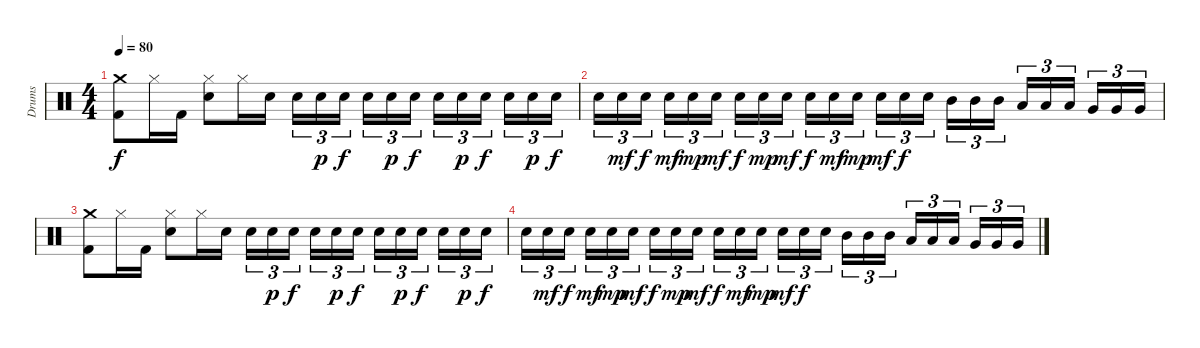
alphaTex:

\track ("Drums" "Drums") {instrument percussion}
\staff {score}
\articulation defaults
\ts (4 4)
\tempo 80
\clef neutral
\ks c
("Crash medium (hit)" "Kick (hit) 2").8{dy f} "Hi-Hat (closed)".16 "Kick (hit) 2".16 ("Hi-Hat (closed)" "Electric Snare (hit)").8 "Hi-Hat (closed)".16 "Electric Snare (hit)".16 "Electric Snare (hit)".16{tu (3 2)} "Electric Snare (hit)".16{tu (3 2) dy p} "Electric Snare (hit)".16{tu (3 2) dy f} "Electric Snare (hit)".16{tu (3 2)} "Electric Snare (hit)".16{tu (3 2) dy p} "Electric Snare (hit)".16{tu (3 2) dy f} "Electric Snare (hit)".16{tu (3 2)} "Electric Snare (hit)".16{tu (3 2) dy p} "Electric Snare (hit)".16{tu (3 2) dy f} "Electric Snare (hit)".16{tu (3 2)} "Electric Snare (hit)".16{tu (3 2) dy p} "Electric Snare (hit)".16{tu (3 2) dy f} |
"Electric Snare (hit)".16{tu (3 2)} "Electric Snare (hit)".16{tu (3 2) dy mf} "Electric Snare (hit)".16{tu (3 2) dy f} "Electric Snare (hit)".16{tu (3 2) dy mf} "Electric Snare (hit)".16{tu (3 2) dy mp} "Electric Snare (hit)".16{tu (3 2) dy mf} "Electric Snare (hit)".16{tu (3 2) dy f} "Electric Snare (hit)".16{tu (3 2) dy mp} "Electric Snare (hit)".16{tu (3 2) dy mf} "Electric Snare (hit)".16{tu (3 2) dy f} "Electric Snare (hit)".16{tu (3 2) dy mf} "Electric Snare (hit)".16{tu (3 2) dy mp} "Electric Snare (hit)".16{tu (3 2) dy mf} "Electric Snare (hit)".16{tu (3 2) dy f} "Electric Snare (hit)".16{tu (3 2)} "Mid Tom (hit)".16{tu (3 2)} "Mid Tom (hit)".16{tu (3 2)} "Mid Tom (hit)".16{tu (3 2)} "Low Tom (hit)".16{tu (3 2)} "Low Tom (hit)".16{tu (3 2)} "Low Tom (hit)".16{tu (3 2)} "Very Low Tom (hit)".16{tu (3 2)} "Very Low Tom (hit)".16{tu (3 2)} "Very Low Tom (hit)".16{tu (3 2)} |
("Crash medium (hit)" "Kick (hit) 2").8 "Hi-Hat (closed)".16 "Kick (hit) 2".16 ("Hi-Hat (closed)" "Electric Snare (hit)").8 "Hi-Hat (closed)".16 "Electric Snare (hit)".16 "Electric Snare (hit)".16{tu (3 2)} "Electric Snare (hit)".16{tu (3 2) dy p} "Electric Snare (hit)".16{tu (3 2) dy f} "Electric Snare (hit)".16{tu (3 2)} "Electric Snare (hit)".16{tu (3 2) dy p} "Electric Snare (hit)".16{tu (3 2) dy f} "Electric Snare (hit)".16{tu (3 2)} "Electric Snare (hit)".16{tu (3 2) dy p} "Electric Snare (hit)".16{tu (3 2) dy f} "Electric Snare (hit)".16{tu (3 2)} "Electric Snare (hit)".16{tu (3 2) dy p} "Electric Snare (hit)".16{tu (3 2) dy f} |
"Electric Snare (hit)".16{tu (3 2)} "Electric Snare (hit)".16{tu (3 2) dy mf} "Electric Snare (hit)".16{tu (3 2) dy f} "Electric Snare (hit)".16{tu (3 2) dy mf} "Electric Snare (hit)".16{tu (3 2) dy mp} "Electric Snare (hit)".16{tu (3 2) dy mf} "Electric Snare (hit)".16{tu (3 2) dy f} "Electric Snare (hit)".16{tu (3 2) dy mp} "Electric Snare (hit)".16{tu (3 2) dy mf} "Electric Snare (hit)".16{tu (3 2) dy f} "Electric Snare (hit)".16{tu (3 2) dy mf} "Electric Snare (hit)".16{tu (3 2) dy mp} "Electric Snare (hit)".16{tu (3 2) dy mf} "Electric Snare (hit)".16{tu (3 2) dy f} "Electric Snare (hit)".16{tu (3 2)} "Mid Tom (hit)".16{tu (3 2)} "Mid Tom (hit)".16{tu (3 2)} "Mid Tom (hit)".16{tu (3 2)} "Low Tom (hit)".16{tu (3 2)} "Low Tom (hit)".16{tu (3 2)} "Low Tom (hit)".16{tu (3 2)} "Very Low Tom (hit)".16{tu (3 2)} "Very Low Tom (hit)".16{tu (3 2)} "Very Low Tom (hit)".16{tu (3 2)}
